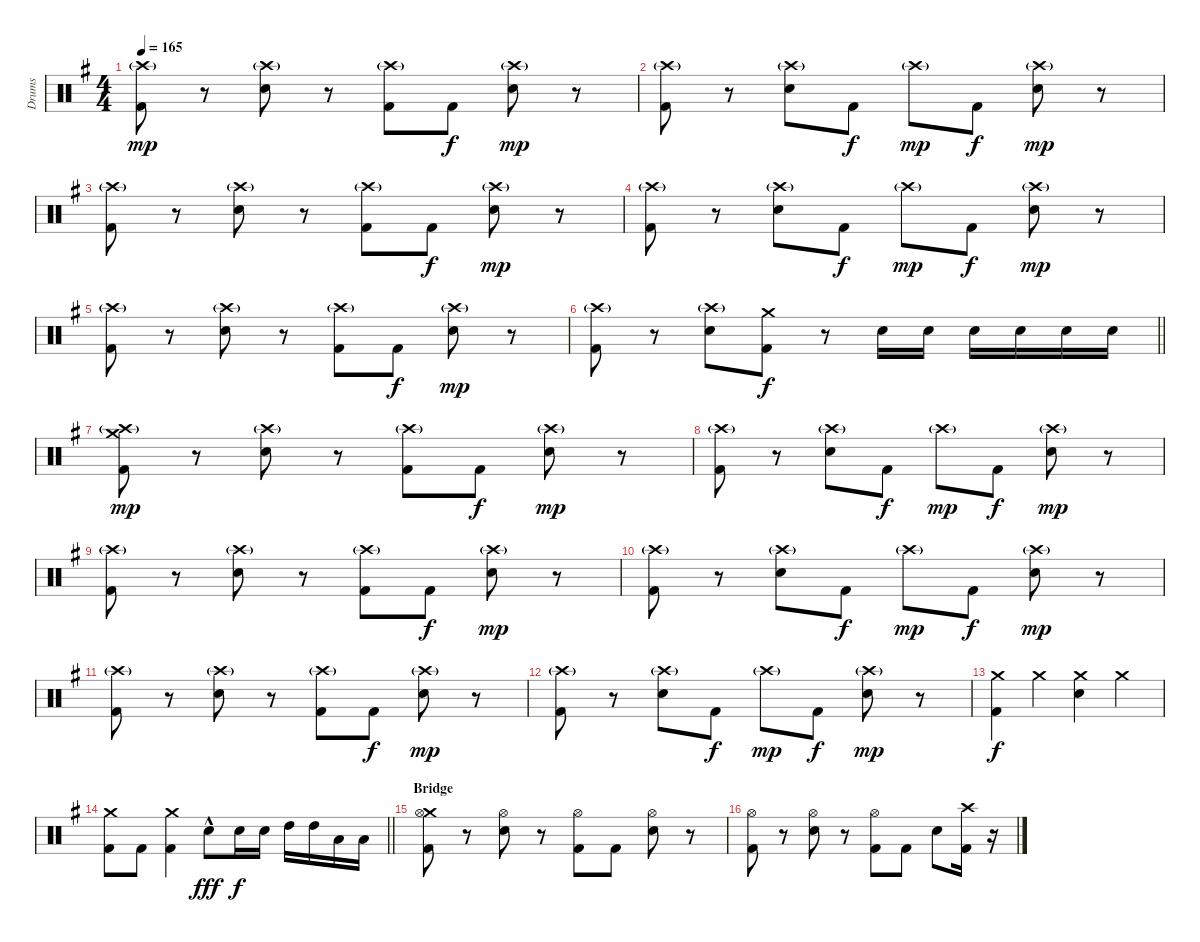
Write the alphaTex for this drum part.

\track ("Drums" "Drums") {instrument percussion}
\staff {score}
\articulation defaults
\ts (4 4)
\tempo 165
\clef neutral
\ks eminor
("Crash high (hit)"{g} "Kick (hit) 2").8{dy mp} r.8 ("Crash high (hit)"{g} "Electric Snare (hit)").8 r.8 ("Crash high (hit)"{g} "Kick (hit) 2").8 "Kick (hit) 2".8{dy f} ("Crash high (hit)"{g} "Electric Snare (hit)").8{dy mp} r.8 |
("Crash high (hit)"{g} "Kick (hit) 2").8 r.8 ("Crash high (hit)"{g} "Electric Snare (hit)").8 "Kick (hit) 2".8{dy f} "Crash high (hit)"{g}.8{dy mp} "Kick (hit) 2".8{dy f} ("Crash high (hit)"{g} "Electric Snare (hit)").8{dy mp} r.8 |
("Crash high (hit)"{g} "Kick (hit) 2").8 r.8 ("Crash high (hit)"{g} "Electric Snare (hit)").8 r.8 ("Crash high (hit)"{g} "Kick (hit) 2").8 "Kick (hit) 2".8{dy f} ("Crash high (hit)"{g} "Electric Snare (hit)").8{dy mp} r.8 |
("Crash high (hit)"{g} "Kick (hit) 2").8 r.8 ("Crash high (hit)"{g} "Electric Snare (hit)").8 "Kick (hit) 2".8{dy f} "Crash high (hit)"{g}.8{dy mp} "Kick (hit) 2".8{dy f} ("Crash high (hit)"{g} "Electric Snare (hit)").8{dy mp} r.8 |
("Crash high (hit)"{g} "Kick (hit) 2").8 r.8 ("Crash high (hit)"{g} "Electric Snare (hit)").8 r.8 ("Crash high (hit)"{g} "Kick (hit) 2").8 "Kick (hit) 2".8{dy f} ("Crash high (hit)"{g} "Electric Snare (hit)").8{dy mp} r.8 |
\barLineRight lightlight
("Crash high (hit)"{g} "Kick (hit) 2").8 r.8 ("Crash high (hit)"{g} "Electric Snare (hit)").8 ("Crash medium (hit)" "Kick (hit) 2").8{dy f} r.8 "Electric Snare (hit)".16 "Electric Snare (hit)".16 "Electric Snare (hit)".16 "Electric Snare (hit)".16 "Electric Snare (hit)".16 "Electric Snare (hit)".16 |
("Crash high (hit)"{g} "Crash medium (hit)" "Kick (hit) 2").8{dy mp} r.8 ("Crash high (hit)"{g} "Electric Snare (hit)").8 r.8 ("Crash high (hit)"{g} "Kick (hit) 2").8 "Kick (hit) 2".8{dy f} ("Crash high (hit)"{g} "Electric Snare (hit)").8{dy mp} r.8 |
("Crash high (hit)"{g} "Kick (hit) 2").8 r.8 ("Crash high (hit)"{g} "Electric Snare (hit)").8 "Kick (hit) 2".8{dy f} "Crash high (hit)"{g}.8{dy mp} "Kick (hit) 2".8{dy f} ("Crash high (hit)"{g} "Electric Snare (hit)").8{dy mp} r.8 |
("Crash high (hit)"{g} "Kick (hit) 2").8 r.8 ("Crash high (hit)"{g} "Electric Snare (hit)").8 r.8 ("Crash high (hit)"{g} "Kick (hit) 2").8 "Kick (hit) 2".8{dy f} ("Crash high (hit)"{g} "Electric Snare (hit)").8{dy mp} r.8 |
("Crash high (hit)"{g} "Kick (hit) 2").8 r.8 ("Crash high (hit)"{g} "Electric Snare (hit)").8 "Kick (hit) 2".8{dy f} "Crash high (hit)"{g}.8{dy mp} "Kick (hit) 2".8{dy f} ("Crash high (hit)"{g} "Electric Snare (hit)").8{dy mp} r.8 |
("Crash high (hit)"{g} "Kick (hit) 2").8 r.8 ("Crash high (hit)"{g} "Electric Snare (hit)").8 r.8 ("Crash high (hit)"{g} "Kick (hit) 2").8 "Kick (hit) 2".8{dy f} ("Crash high (hit)"{g} "Electric Snare (hit)").8{dy mp} r.8 |
("Crash high (hit)"{g} "Kick (hit) 2").8 r.8 ("Crash high (hit)"{g} "Electric Snare (hit)").8 "Kick (hit) 2".8{dy f} "Crash high (hit)"{g}.8{dy mp} "Kick (hit) 2".8{dy f} ("Crash high (hit)"{g} "Electric Snare (hit)").8{dy mp} r.8 |
("Crash medium (hit)" "Kick (hit) 2").4{dy f} "Crash medium (hit)".4 ("Crash medium (hit)" "Electric Snare (hit)").4 "Crash medium (hit)".4 |
\barLineRight lightlight
("Crash medium (hit)" "Kick (hit) 2").8 "Kick (hit) 2".8 ("Crash medium (hit)" "Kick (hit) 2").4 "Electric Snare (hit)"{hac}.8{dy fff} "Electric Snare (hit)".16{dy f} "Electric Snare (hit)".16 "High Tom (hit)".16 "High Tom (hit)".16 "Low Tom (hit)".16 "Low Tom (hit)".16 |
\section ("" "Bridge")
("Crash medium (hit)" "Hi-Hat (open)" "Kick (hit) 2").8 r.8 ("Hi-Hat (open)" "Electric Snare (hit)").8 r.8 ("Hi-Hat (open)" "Kick (hit) 2").8 "Kick (hit) 2".8 ("Hi-Hat (open)" "Electric Snare (hit)").8 r.8 |
("Hi-Hat (open)" "Kick (hit) 2").8 r.8 ("Hi-Hat (open)" "Electric Snare (hit)").8 r.8 ("Hi-Hat (open)" "Kick (hit) 2").8 "Kick (hit) 2".8 "Electric Snare (hit)".8 ("Crash high (hit)" "Kick (hit) 2").16 r.16
